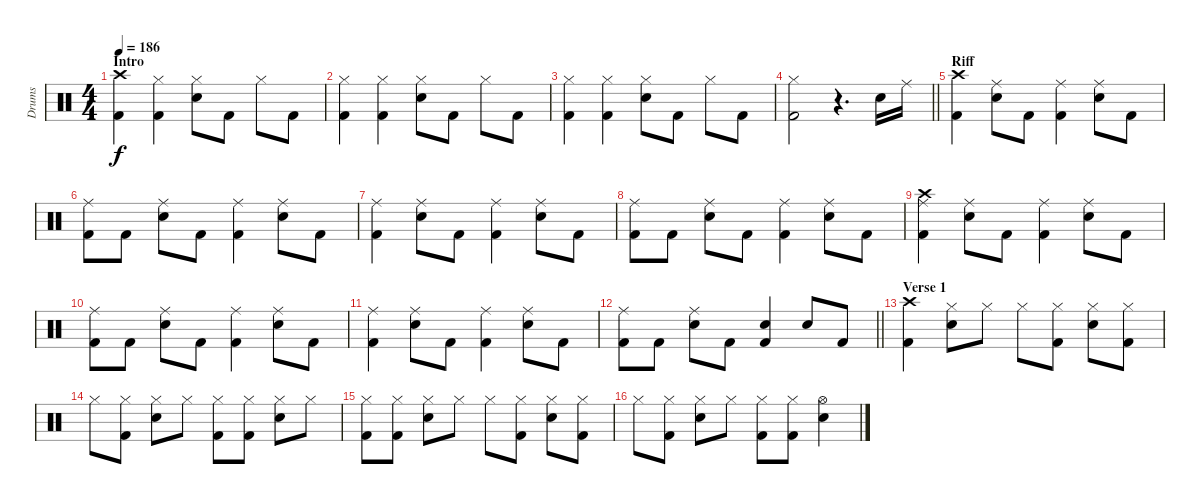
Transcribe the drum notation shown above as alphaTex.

\track ("Drums" "Drums") {instrument percussion}
\staff {score}
\articulation defaults
\ts (4 4)
\section ("" "Intro")
\tempo 186
\clef neutral
\ks c
("Crash high (hit)" "Kick (hit) 2").4{dy f} ("Hi-Hat (closed)" "Kick (hit) 2").4 ("Hi-Hat (closed)" "Snare (hit) 2").8 "Kick (hit) 2".8 "Hi-Hat (closed)".8 "Kick (hit) 2".8 |
("Hi-Hat (closed)" "Kick (hit) 2").4 ("Hi-Hat (closed)" "Kick (hit) 2").4 ("Hi-Hat (closed)" "Snare (hit) 2").8 "Kick (hit) 2".8 "Hi-Hat (closed)".8 "Kick (hit) 2".8 |
("Hi-Hat (closed)" "Kick (hit) 2").4 ("Hi-Hat (closed)" "Kick (hit) 2").4 ("Hi-Hat (closed)" "Snare (hit) 2").8 "Kick (hit) 2".8 "Hi-Hat (closed)".8 "Kick (hit) 2".8 |
\barLineRight lightlight
("Hi-Hat (closed)" "Kick (hit) 2").2 r.4{d} "Snare (hit) 2".16 "Ride (middle)".16 |
\section ("" "Riff")
("Crash high (hit)" "Kick (hit) 2").4 ("Ride (middle)" "Snare (hit) 2").8 "Kick (hit) 2".8 ("Ride (middle)" "Kick (hit) 2").4 ("Ride (middle)" "Snare (hit) 2").8 "Kick (hit) 2".8 |
("Ride (middle)" "Kick (hit) 2").8 "Kick (hit) 2".8 ("Ride (middle)" "Snare (hit) 2").8 "Kick (hit) 2".8 ("Ride (middle)" "Kick (hit) 2").4 ("Ride (middle)" "Snare (hit) 2").8 "Kick (hit) 2".8 |
("Ride (middle)" "Kick (hit) 2").4 ("Ride (middle)" "Snare (hit) 2").8 "Kick (hit) 2".8 ("Ride (middle)" "Kick (hit) 2").4 ("Ride (middle)" "Snare (hit) 2").8 "Kick (hit) 2".8 |
("Ride (middle)" "Kick (hit) 2").8 "Kick (hit) 2".8 ("Ride (middle)" "Snare (hit) 2").8 "Kick (hit) 2".8 ("Ride (middle)" "Kick (hit) 2").4 ("Ride (middle)" "Snare (hit) 2").8 "Kick (hit) 2".8 |
("Crash high (hit)" "Ride (middle)" "Kick (hit) 2").4 ("Ride (middle)" "Snare (hit) 2").8 "Kick (hit) 2".8 ("Ride (middle)" "Kick (hit) 2").4 ("Ride (middle)" "Snare (hit) 2").8 "Kick (hit) 2".8 |
("Ride (middle)" "Kick (hit) 2").8 "Kick (hit) 2".8 ("Ride (middle)" "Snare (hit) 2").8 "Kick (hit) 2".8 ("Ride (middle)" "Kick (hit) 2").4 ("Ride (middle)" "Snare (hit) 2").8 "Kick (hit) 2".8 |
("Ride (middle)" "Kick (hit) 2").4 ("Ride (middle)" "Snare (hit) 2").8 "Kick (hit) 2".8 ("Ride (middle)" "Kick (hit) 2").4 ("Ride (middle)" "Snare (hit) 2").8 "Kick (hit) 2".8 |
\barLineRight lightlight
("Ride (middle)" "Kick (hit) 2").8 "Kick (hit) 2".8 ("Ride (middle)" "Snare (hit) 2").8 "Kick (hit) 2".8 ("Snare (hit) 2" "Kick (hit) 2").4 "Snare (hit) 2".8 "Kick (hit) 2".8 |
\section ("" "Verse 1")
("Crash high (hit)" "Kick (hit) 2").4 ("Hi-Hat (closed)" "Snare (hit) 2").8 "Hi-Hat (closed)".8 "Hi-Hat (closed)".8 ("Hi-Hat (closed)" "Kick (hit) 2").8 ("Hi-Hat (closed)" "Snare (hit) 2").8 ("Hi-Hat (closed)" "Kick (hit) 2").8 |
"Hi-Hat (closed)".8 ("Hi-Hat (closed)" "Kick (hit) 2").8 ("Hi-Hat (closed)" "Snare (hit) 2").8 "Hi-Hat (closed)".8 ("Hi-Hat (closed)" "Kick (hit) 2").8 ("Hi-Hat (closed)" "Kick (hit) 2").8 ("Hi-Hat (closed)" "Snare (hit) 2").8 "Hi-Hat (closed)".8 |
("Hi-Hat (closed)" "Kick (hit) 2").8 ("Hi-Hat (closed)" "Kick (hit) 2").8 ("Hi-Hat (closed)" "Snare (hit) 2").8 "Hi-Hat (closed)".8 "Hi-Hat (closed)".8 ("Hi-Hat (closed)" "Kick (hit) 2").8 ("Hi-Hat (closed)" "Snare (hit) 2").8 ("Hi-Hat (closed)" "Kick (hit) 2").8 |
"Hi-Hat (closed)".8 ("Hi-Hat (closed)" "Kick (hit) 2").8 ("Hi-Hat (closed)" "Snare (hit) 2").8 "Hi-Hat (closed)".8 ("Hi-Hat (closed)" "Kick (hit) 2").8 ("Hi-Hat (closed)" "Kick (hit) 2").8 ("Hi-Hat (open)" "Snare (hit) 2").4
